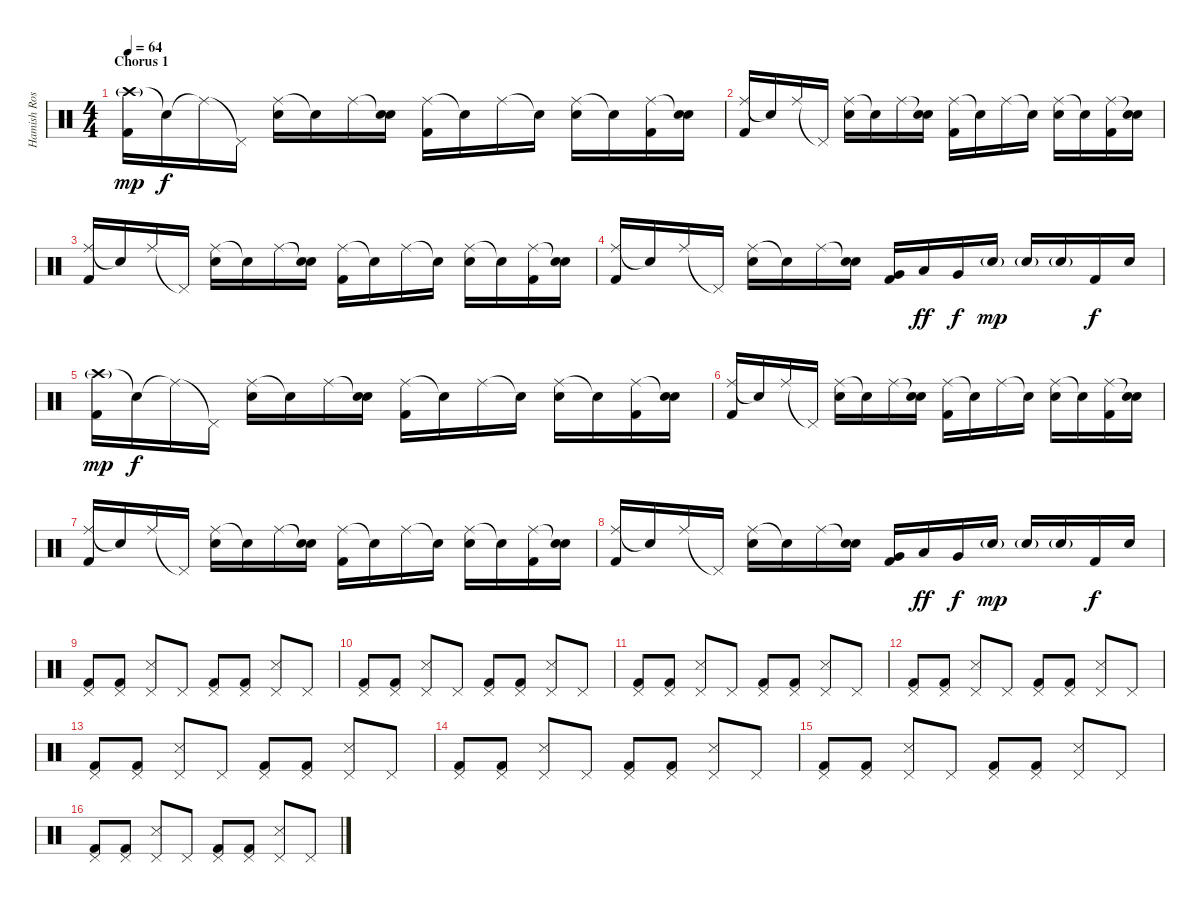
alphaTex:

\track ("Hamish Rosser" "Hamish Ros") {instrument percussion}
\staff {score}
\articulation defaults
\ts (4 4)
\section ("" "Chorus 1")
\tempo 64
\clef neutral
\ks c
("Crash high (hit)"{g} "Kick (hit) 2").16{dy mp} "Snare (hit)"{t}.16{dy f} "Ride (middle)"{t}.16 "Pedal Hi-Hat (hit)"{t}.16 ("Ride (middle)" "Electric Snare (hit)").16 "Snare (hit)"{t}.16 "Ride (middle)".16 ("Snare (hit)"{t} "Electric Snare (hit)").16 ("Ride (middle)" "Kick (hit) 2").16 "Snare (hit)"{t}.16 "Ride (middle)".16 "Snare (hit)"{t}.16 ("Ride (middle)" "Electric Snare (hit)").16 "Snare (hit)"{t}.16 ("Ride (middle)" "Kick (hit) 2").16 ("Snare (hit)"{t} "Electric Snare (hit)").16 |
("Ride (middle)" "Kick (hit) 2").16 "Snare (hit)"{t}.16 "Ride (middle)".16 "Pedal Hi-Hat (hit)"{t}.16 ("Ride (middle)" "Electric Snare (hit)").16 "Snare (hit)"{t}.16 "Ride (middle)".16 ("Snare (hit)"{t} "Electric Snare (hit)").16 ("Ride (middle)" "Kick (hit) 2").16 "Snare (hit)"{t}.16 "Ride (middle)".16 "Snare (hit)"{t}.16 ("Ride (middle)" "Electric Snare (hit)").16 "Snare (hit)"{t}.16 ("Ride (middle)" "Kick (hit) 2").16 ("Snare (hit)"{t} "Electric Snare (hit)").16 |
("Ride (middle)" "Kick (hit) 2").16 "Snare (hit)"{t}.16 "Ride (middle)".16 "Pedal Hi-Hat (hit)"{t}.16 ("Ride (middle)" "Electric Snare (hit)").16 "Snare (hit)"{t}.16 "Ride (middle)".16 ("Snare (hit)"{t} "Electric Snare (hit)").16 ("Ride (middle)" "Kick (hit) 2").16 "Snare (hit)"{t}.16 "Ride (middle)".16 "Snare (hit)"{t}.16 ("Ride (middle)" "Electric Snare (hit)").16 "Snare (hit)"{t}.16 ("Ride (middle)" "Kick (hit) 2").16 ("Snare (hit)"{t} "Electric Snare (hit)").16 |
("Ride (middle)" "Kick (hit) 2").16 "Snare (hit)"{t}.16 "Ride (middle)".16 "Pedal Hi-Hat (hit)"{t}.16 ("Ride (middle)" "Electric Snare (hit)").16 "Snare (hit)"{t}.16 "Ride (middle)".16 ("Snare (hit)"{t} "Electric Snare (hit)").16 ("Very Low Tom (hit)" "Kick (hit) 2").16 "Low Tom (hit)".16{dy ff} "Very Low Tom (hit)".16{dy f} "Electric Snare (hit)"{g}.16{dy mp} "Electric Snare (hit)"{g}.16 "Electric Snare (hit)"{g}.16 "Kick (hit) 2".16{dy f} "Electric Snare (hit)".16 |
("Crash high (hit)"{g} "Kick (hit) 2").16{dy mp} "Snare (hit)"{t}.16{dy f} "Ride (middle)"{t}.16 "Pedal Hi-Hat (hit)"{t}.16 ("Ride (middle)" "Electric Snare (hit)").16 "Snare (hit)"{t}.16 "Ride (middle)".16 ("Snare (hit)"{t} "Electric Snare (hit)").16 ("Ride (middle)" "Kick (hit) 2").16 "Snare (hit)"{t}.16 "Ride (middle)".16 "Snare (hit)"{t}.16 ("Ride (middle)" "Electric Snare (hit)").16 "Snare (hit)"{t}.16 ("Ride (middle)" "Kick (hit) 2").16 ("Snare (hit)"{t} "Electric Snare (hit)").16 |
("Ride (middle)" "Kick (hit) 2").16 "Snare (hit)"{t}.16 "Ride (middle)".16 "Pedal Hi-Hat (hit)"{t}.16 ("Ride (middle)" "Electric Snare (hit)").16 "Snare (hit)"{t}.16 "Ride (middle)".16 ("Snare (hit)"{t} "Electric Snare (hit)").16 ("Ride (middle)" "Kick (hit) 2").16 "Snare (hit)"{t}.16 "Ride (middle)".16 "Snare (hit)"{t}.16 ("Ride (middle)" "Electric Snare (hit)").16 "Snare (hit)"{t}.16 ("Ride (middle)" "Kick (hit) 2").16 ("Snare (hit)"{t} "Electric Snare (hit)").16 |
("Ride (middle)" "Kick (hit) 2").16 "Snare (hit)"{t}.16 "Ride (middle)".16 "Pedal Hi-Hat (hit)"{t}.16 ("Ride (middle)" "Electric Snare (hit)").16 "Snare (hit)"{t}.16 "Ride (middle)".16 ("Snare (hit)"{t} "Electric Snare (hit)").16 ("Ride (middle)" "Kick (hit) 2").16 "Snare (hit)"{t}.16 "Ride (middle)".16 "Snare (hit)"{t}.16 ("Ride (middle)" "Electric Snare (hit)").16 "Snare (hit)"{t}.16 ("Ride (middle)" "Kick (hit) 2").16 ("Snare (hit)"{t} "Electric Snare (hit)").16 |
("Ride (middle)" "Kick (hit) 2").16 "Snare (hit)"{t}.16 "Ride (middle)".16 "Pedal Hi-Hat (hit)"{t}.16 ("Ride (middle)" "Electric Snare (hit)").16 "Snare (hit)"{t}.16 "Ride (middle)".16 ("Snare (hit)"{t} "Electric Snare (hit)").16 ("Very Low Tom (hit)" "Kick (hit) 2").16 "Low Tom (hit)".16{dy ff} "Very Low Tom (hit)".16{dy f} "Electric Snare (hit)"{g}.16{dy mp} "Electric Snare (hit)"{g}.16 "Electric Snare (hit)"{g}.16 "Kick (hit) 2".16{dy f} "Electric Snare (hit)".16 |
("Pedal Hi-Hat (hit)" "Kick (hit) 2").8 ("Pedal Hi-Hat (hit)" "Kick (hit) 2").8 ("Pedal Hi-Hat (hit)" "Snare (side stick) 3").8 "Pedal Hi-Hat (hit)".8 ("Pedal Hi-Hat (hit)" "Kick (hit) 2").8 ("Pedal Hi-Hat (hit)" "Kick (hit) 2").8 ("Pedal Hi-Hat (hit)" "Snare (side stick) 3").8 "Pedal Hi-Hat (hit)".8 |
("Pedal Hi-Hat (hit)" "Kick (hit) 2").8 ("Pedal Hi-Hat (hit)" "Kick (hit) 2").8 ("Pedal Hi-Hat (hit)" "Snare (side stick) 3").8 "Pedal Hi-Hat (hit)".8 ("Pedal Hi-Hat (hit)" "Kick (hit) 2").8 ("Pedal Hi-Hat (hit)" "Kick (hit) 2").8 ("Pedal Hi-Hat (hit)" "Snare (side stick) 3").8 "Pedal Hi-Hat (hit)".8 |
("Pedal Hi-Hat (hit)" "Kick (hit) 2").8 ("Pedal Hi-Hat (hit)" "Kick (hit) 2").8 ("Pedal Hi-Hat (hit)" "Snare (side stick) 3").8 "Pedal Hi-Hat (hit)".8 ("Pedal Hi-Hat (hit)" "Kick (hit) 2").8 ("Pedal Hi-Hat (hit)" "Kick (hit) 2").8 ("Pedal Hi-Hat (hit)" "Snare (side stick) 3").8 "Pedal Hi-Hat (hit)".8 |
("Pedal Hi-Hat (hit)" "Kick (hit) 2").8 ("Pedal Hi-Hat (hit)" "Kick (hit) 2").8 ("Pedal Hi-Hat (hit)" "Snare (side stick) 3").8 "Pedal Hi-Hat (hit)".8 ("Pedal Hi-Hat (hit)" "Kick (hit) 2").8 ("Pedal Hi-Hat (hit)" "Kick (hit) 2").8 ("Pedal Hi-Hat (hit)" "Snare (side stick) 3").8 "Pedal Hi-Hat (hit)".8 |
("Pedal Hi-Hat (hit)" "Kick (hit) 2").8 ("Pedal Hi-Hat (hit)" "Kick (hit) 2").8 ("Pedal Hi-Hat (hit)" "Snare (side stick) 3").8 "Pedal Hi-Hat (hit)".8 ("Pedal Hi-Hat (hit)" "Kick (hit) 2").8 ("Pedal Hi-Hat (hit)" "Kick (hit) 2").8 ("Pedal Hi-Hat (hit)" "Snare (side stick) 3").8 "Pedal Hi-Hat (hit)".8 |
("Pedal Hi-Hat (hit)" "Kick (hit) 2").8 ("Pedal Hi-Hat (hit)" "Kick (hit) 2").8 ("Pedal Hi-Hat (hit)" "Snare (side stick) 3").8 "Pedal Hi-Hat (hit)".8 ("Pedal Hi-Hat (hit)" "Kick (hit) 2").8 ("Pedal Hi-Hat (hit)" "Kick (hit) 2").8 ("Pedal Hi-Hat (hit)" "Snare (side stick) 3").8 "Pedal Hi-Hat (hit)".8 |
("Pedal Hi-Hat (hit)" "Kick (hit) 2").8 ("Pedal Hi-Hat (hit)" "Kick (hit) 2").8 ("Pedal Hi-Hat (hit)" "Snare (side stick) 3").8 "Pedal Hi-Hat (hit)".8 ("Pedal Hi-Hat (hit)" "Kick (hit) 2").8 ("Pedal Hi-Hat (hit)" "Kick (hit) 2").8 ("Pedal Hi-Hat (hit)" "Snare (side stick) 3").8 "Pedal Hi-Hat (hit)".8 |
("Pedal Hi-Hat (hit)" "Kick (hit) 2").8 ("Pedal Hi-Hat (hit)" "Kick (hit) 2").8 ("Pedal Hi-Hat (hit)" "Snare (side stick) 3").8 "Pedal Hi-Hat (hit)".8 ("Pedal Hi-Hat (hit)" "Kick (hit) 2").8 ("Pedal Hi-Hat (hit)" "Kick (hit) 2").8 ("Pedal Hi-Hat (hit)" "Snare (side stick) 3").8 "Pedal Hi-Hat (hit)".8
